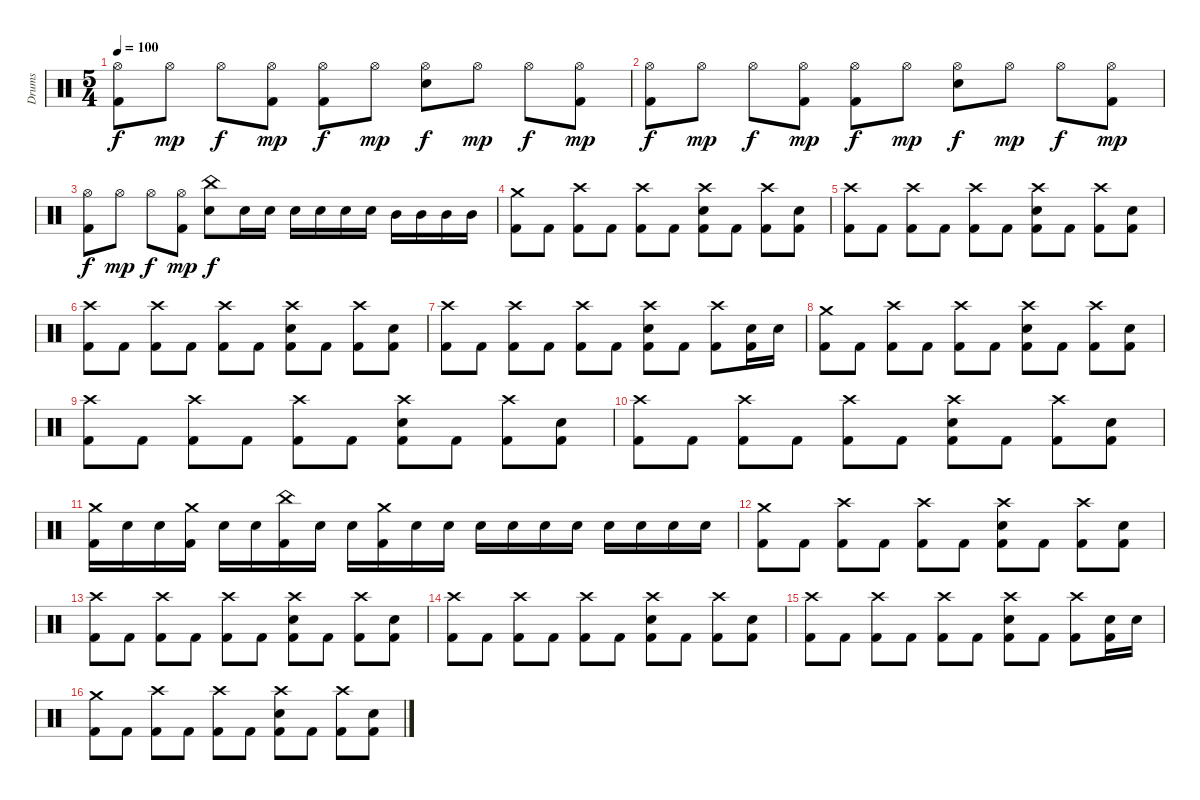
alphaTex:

\track ("Drums" "Drums") {instrument percussion}
\staff {score}
\articulation defaults
\ts (5 4)
\tempo 100
\clef neutral
\ks c
("Hi-Hat (open)" "Kick (hit) 2").8{dy f} "Hi-Hat (open)".8{dy mp} "Hi-Hat (open)".8{dy f} ("Hi-Hat (open)" "Kick (hit) 2").8{dy mp} ("Hi-Hat (open)" "Kick (hit) 2").8{dy f} "Hi-Hat (open)".8{dy mp} ("Hi-Hat (open)" "Snare (hit) 2").8{dy f} "Hi-Hat (open)".8{dy mp} "Hi-Hat (open)".8{dy f} ("Hi-Hat (open)" "Kick (hit) 2").8{dy mp} |
("Hi-Hat (open)" "Kick (hit) 2").8{dy f} "Hi-Hat (open)".8{dy mp} "Hi-Hat (open)".8{dy f} ("Hi-Hat (open)" "Kick (hit) 2").8{dy mp} ("Hi-Hat (open)" "Kick (hit) 2").8{dy f} "Hi-Hat (open)".8{dy mp} ("Hi-Hat (open)" "Snare (hit) 2").8{dy f} "Hi-Hat (open)".8{dy mp} "Hi-Hat (open)".8{dy f} ("Hi-Hat (open)" "Kick (hit) 2").8{dy mp} |
("Hi-Hat (open)" "Kick (hit) 2").8{dy f} "Hi-Hat (open)".8{dy mp} "Hi-Hat (open)".8{dy f} ("Hi-Hat (open)" "Kick (hit) 2").8{dy mp} ("China (hit)" "Snare (hit) 2").8{dy f} "Snare (hit) 2".16 "Snare (hit) 2".16 "Snare (hit) 2".16 "Snare (hit) 2".16 "Snare (hit) 2".16 "Snare (hit) 2".16 "Mid Tom (hit)".16 "Mid Tom (hit)".16 "Mid Tom (hit)".16 "Mid Tom (hit)".16 |
("Crash medium (hit)" "Kick (hit) 2").8 "Kick (hit) 2".8 ("Crash high (hit)" "Kick (hit) 2").8 "Kick (hit) 2".8 ("Crash high (hit)" "Kick (hit) 2").8 "Kick (hit) 2".8 ("Crash high (hit)" "Snare (hit) 2" "Kick (hit) 2").8 "Kick (hit) 2".8 ("Crash high (hit)" "Kick (hit) 2").8 ("Snare (hit) 2" "Kick (hit) 2").8 |
("Crash high (hit)" "Kick (hit) 2").8 "Kick (hit) 2".8 ("Crash high (hit)" "Kick (hit) 2").8 "Kick (hit) 2".8 ("Crash high (hit)" "Kick (hit) 2").8 "Kick (hit) 2".8 ("Crash high (hit)" "Snare (hit) 2" "Kick (hit) 2").8 "Kick (hit) 2".8 ("Crash high (hit)" "Kick (hit) 2").8 ("Snare (hit) 2" "Kick (hit) 2").8 |
("Crash high (hit)" "Kick (hit) 2").8 "Kick (hit) 2".8 ("Crash high (hit)" "Kick (hit) 2").8 "Kick (hit) 2".8 ("Crash high (hit)" "Kick (hit) 2").8 "Kick (hit) 2".8 ("Crash high (hit)" "Snare (hit) 2" "Kick (hit) 2").8 "Kick (hit) 2".8 ("Crash high (hit)" "Kick (hit) 2").8 ("Snare (hit) 2" "Kick (hit) 2").8 |
("Crash high (hit)" "Kick (hit) 2").8 "Kick (hit) 2".8 ("Crash high (hit)" "Kick (hit) 2").8 "Kick (hit) 2".8 ("Crash high (hit)" "Kick (hit) 2").8 "Kick (hit) 2".8 ("Crash high (hit)" "Snare (hit) 2" "Kick (hit) 2").8 "Kick (hit) 2".8 ("Crash high (hit)" "Kick (hit) 2").8 ("Snare (hit) 2" "Kick (hit) 2").16 "Snare (hit) 2".16 |
("Crash medium (hit)" "Kick (hit) 2").8 "Kick (hit) 2".8 ("Crash high (hit)" "Kick (hit) 2").8 "Kick (hit) 2".8 ("Crash high (hit)" "Kick (hit) 2").8 "Kick (hit) 2".8 ("Crash high (hit)" "Snare (hit) 2" "Kick (hit) 2").8 "Kick (hit) 2".8 ("Crash high (hit)" "Kick (hit) 2").8 ("Snare (hit) 2" "Kick (hit) 2").8 |
("Crash high (hit)" "Kick (hit) 2").8 "Kick (hit) 2".8 ("Crash high (hit)" "Kick (hit) 2").8 "Kick (hit) 2".8 ("Crash high (hit)" "Kick (hit) 2").8 "Kick (hit) 2".8 ("Crash high (hit)" "Snare (hit) 2" "Kick (hit) 2").8 "Kick (hit) 2".8 ("Crash high (hit)" "Kick (hit) 2").8 ("Snare (hit) 2" "Kick (hit) 2").8 |
("Crash high (hit)" "Kick (hit) 2").8{volume 10} "Kick (hit) 2".8 ("Crash high (hit)" "Kick (hit) 2").8 "Kick (hit) 2".8 ("Crash high (hit)" "Kick (hit) 2").8 "Kick (hit) 2".8 ("Crash high (hit)" "Snare (hit) 2" "Kick (hit) 2").8 "Kick (hit) 2".8 ("Crash high (hit)" "Kick (hit) 2").8 ("Snare (hit) 2" "Kick (hit) 2").8 |
("Crash medium (hit)" "Kick (hit) 2").16 "Snare (hit) 2".16 "Snare (hit) 2".16 ("Crash medium (hit)" "Kick (hit) 2").16 "Snare (hit) 2".16 "Snare (hit) 2".16 ("China (hit)" "Kick (hit) 2").16 "Snare (hit) 2".16 "Snare (hit) 2".16 ("Crash medium (hit)" "Kick (hit) 2").16 "Snare (hit) 2".16 "Snare (hit) 2".16 "Snare (hit) 2".16 "Snare (hit) 2".16 "Snare (hit) 2".16 "Snare (hit) 2".16 "Snare (hit) 2".16 "Snare (hit) 2".16 "Snare (hit) 2".16 "Snare (hit) 2".16 |
("Crash medium (hit)" "Kick (hit) 2").8 "Kick (hit) 2".8 ("Crash high (hit)" "Kick (hit) 2").8 "Kick (hit) 2".8 ("Crash high (hit)" "Kick (hit) 2").8 "Kick (hit) 2".8 ("Crash high (hit)" "Snare (hit) 2" "Kick (hit) 2").8 "Kick (hit) 2".8 ("Crash high (hit)" "Kick (hit) 2").8 ("Snare (hit) 2" "Kick (hit) 2").8 |
("Crash high (hit)" "Kick (hit) 2").8 "Kick (hit) 2".8 ("Crash high (hit)" "Kick (hit) 2").8{volume 7} "Kick (hit) 2".8 ("Crash high (hit)" "Kick (hit) 2").8 "Kick (hit) 2".8 ("Crash high (hit)" "Snare (hit) 2" "Kick (hit) 2").8 "Kick (hit) 2".8 ("Crash high (hit)" "Kick (hit) 2").8 ("Snare (hit) 2" "Kick (hit) 2").8 |
("Crash high (hit)" "Kick (hit) 2").8 "Kick (hit) 2".8 ("Crash high (hit)" "Kick (hit) 2").8 "Kick (hit) 2".8 ("Crash high (hit)" "Kick (hit) 2").8 "Kick (hit) 2".8 ("Crash high (hit)" "Snare (hit) 2" "Kick (hit) 2").8 "Kick (hit) 2".8 ("Crash high (hit)" "Kick (hit) 2").8 ("Snare (hit) 2" "Kick (hit) 2").8 |
("Crash high (hit)" "Kick (hit) 2").8 "Kick (hit) 2".8 ("Crash high (hit)" "Kick (hit) 2").8 "Kick (hit) 2".8 ("Crash high (hit)" "Kick (hit) 2").8 "Kick (hit) 2".8 ("Crash high (hit)" "Snare (hit) 2" "Kick (hit) 2").8 "Kick (hit) 2".8 ("Crash high (hit)" "Kick (hit) 2").8 ("Snare (hit) 2" "Kick (hit) 2").16 "Snare (hit) 2".16 |
("Crash medium (hit)" "Kick (hit) 2").8{volume 4} "Kick (hit) 2".8 ("Crash high (hit)" "Kick (hit) 2").8 "Kick (hit) 2".8 ("Crash high (hit)" "Kick (hit) 2").8 "Kick (hit) 2".8 ("Crash high (hit)" "Snare (hit) 2" "Kick (hit) 2").8 "Kick (hit) 2".8 ("Crash high (hit)" "Kick (hit) 2").8 ("Snare (hit) 2" "Kick (hit) 2").8
